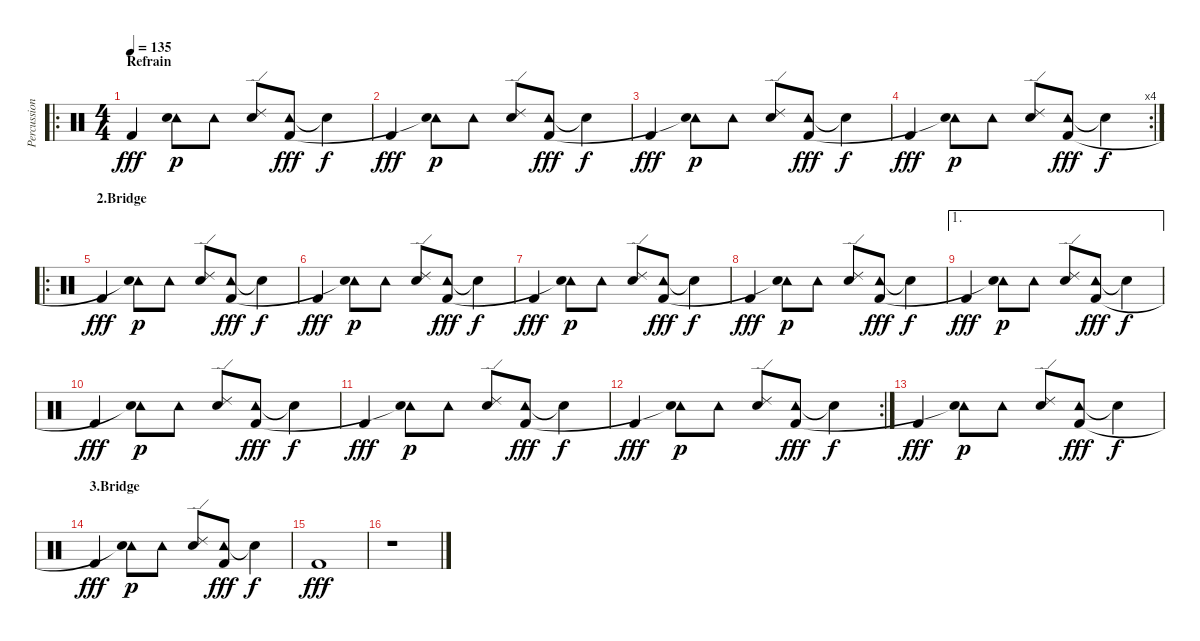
\track ("Percussion" "Percussion") {instrument percussion}
\staff {score}
\articulation defaults
\ro
\ts (4 4)
\section ("" "Refrain")
\tempo 135
\clef neutral
\ks c "Kick (hit) 2".4{dy fff}
("Tambourine (hit)" "Snare (hit)"{t}).8{dy p} "Tambourine (hit)".8 ("Snare (hit) 2" "Ride (edge) 2").8 ("Tambourine (hit)" "Kick (hit) 2").8{dy fff} "Snare (hit)"{t}.4{dy f} |
"Kick (hit) 2".4{dy fff} ("Tambourine (hit)" "Snare (hit)"{t}).8{dy p} "Tambourine (hit)".8 ("Snare (hit) 2" "Ride (edge) 2").8 ("Tambourine (hit)" "Kick (hit) 2").8{dy fff} "Snare (hit)"{t}.4{dy f} |
"Kick (hit) 2".4{dy fff} ("Tambourine (hit)" "Snare (hit)"{t}).8{dy p} "Tambourine (hit)".8 ("Snare (hit) 2" "Ride (edge) 2").8 ("Tambourine (hit)" "Kick (hit) 2").8{dy fff} "Snare (hit)"{t}.4{dy f} |
\rc 4 "Kick (hit) 2".4{dy fff}
("Tambourine (hit)" "Snare (hit)"{t}).8{dy p} "Tambourine (hit)".8 ("Snare (hit) 2" "Ride (edge) 2").8 ("Tambourine (hit)" "Kick (hit) 2").8{dy fff} "Snare (hit)"{t}.4{dy f} |
\ro
\section ("" "2.Bridge")
"Kick (hit) 2".4{dy fff} ("Tambourine (hit)" "Snare (hit)"{t}).8{dy p} "Tambourine (hit)".8 ("Snare (hit) 2" "Ride (edge) 2").8 ("Tambourine (hit)" "Kick (hit) 2").8{dy fff} "Snare (hit)"{t}.4{dy f} |
"Kick (hit) 2".4{dy fff} ("Tambourine (hit)" "Snare (hit)"{t}).8{dy p} "Tambourine (hit)".8 ("Snare (hit) 2" "Ride (edge) 2").8 ("Tambourine (hit)" "Kick (hit) 2").8{dy fff} "Snare (hit)"{t}.4{dy f} |
"Kick (hit) 2".4{dy fff} ("Tambourine (hit)" "Snare (hit)"{t}).8{dy p} "Tambourine (hit)".8 ("Snare (hit) 2" "Ride (edge) 2").8 ("Tambourine (hit)" "Kick (hit) 2").8{dy fff} "Snare (hit)"{t}.4{dy f} |
"Kick (hit) 2".4{dy fff} ("Tambourine (hit)" "Snare (hit)"{t}).8{dy p} "Tambourine (hit)".8 ("Snare (hit) 2" "Ride (edge) 2").8 ("Tambourine (hit)" "Kick (hit) 2").8{dy fff} "Snare (hit)"{t}.4{dy f} |
\ae 1 "Kick (hit) 2".4{dy fff}
("Tambourine (hit)" "Snare (hit)"{t}).8{dy p} "Tambourine (hit)".8 ("Snare (hit) 2" "Ride (edge) 2").8 ("Tambourine (hit)" "Kick (hit) 2").8{dy fff} "Snare (hit)"{t}.4{dy f} |
"Kick (hit) 2".4{dy fff} ("Tambourine (hit)" "Snare (hit)"{t}).8{dy p} "Tambourine (hit)".8 ("Snare (hit) 2" "Ride (edge) 2").8 ("Tambourine (hit)" "Kick (hit) 2").8{dy fff} "Snare (hit)"{t}.4{dy f} |
"Kick (hit) 2".4{dy fff} ("Tambourine (hit)" "Snare (hit)"{t}).8{dy p} "Tambourine (hit)".8 ("Snare (hit) 2" "Ride (edge) 2").8 ("Tambourine (hit)" "Kick (hit) 2").8{dy fff} "Snare (hit)"{t}.4{dy f} |
\rc 2 "Kick (hit) 2".4{dy fff}
("Tambourine (hit)" "Snare (hit)"{t}).8{dy p} "Tambourine (hit)".8 ("Snare (hit) 2" "Ride (edge) 2").8 ("Tambourine (hit)" "Kick (hit) 2").8{dy fff} "Snare (hit)"{t}.4{dy f} |
"Kick (hit) 2".4{dy fff} ("Tambourine (hit)" "Snare (hit)"{t}).8{dy p} "Tambourine (hit)".8 ("Snare (hit) 2" "Ride (edge) 2").8 ("Tambourine (hit)" "Kick (hit) 2").8{dy fff} "Snare (hit)"{t}.4{dy f} |
\section ("" "3.Bridge")
"Kick (hit) 2".4{dy fff} ("Tambourine (hit)" "Snare (hit)"{t}).8{dy p} "Tambourine (hit)".8 ("Snare (hit) 2" "Ride (edge) 2").8 ("Tambourine (hit)" "Kick (hit) 2").8{dy fff} "Snare (hit)"{t}.4{dy f} |
"Kick (hit) 2".1{dy fff} |
r.1
